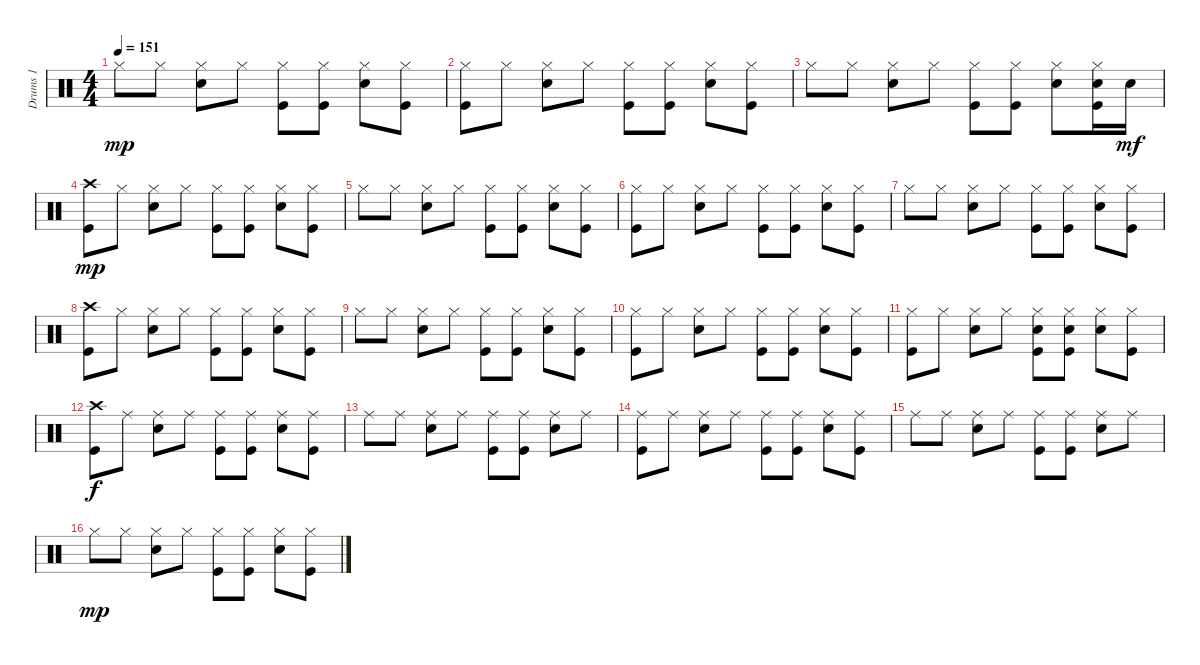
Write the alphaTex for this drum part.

\track ("Drums 1" "Drums 1") {instrument percussion}
\staff {score}
\articulation defaults
\ts (4 4)
\tempo 151
\clef neutral
\ks c "Hi-Hat (closed)".8{dy mp} "Hi-Hat (closed)".8
("Hi-Hat (closed)" "Snare (hit) 2").8 "Hi-Hat (closed)".8 ("Kick (hit)" "Hi-Hat (closed)").8 ("Kick (hit)" "Hi-Hat (closed)").8 ("Snare (hit) 2" "Hi-Hat (closed)").8 ("Hi-Hat (closed)" "Kick (hit)").8 |
("Hi-Hat (closed)" "Kick (hit)").8 "Hi-Hat (closed)".8 ("Hi-Hat (closed)" "Snare (hit) 2").8 "Hi-Hat (closed)".8 ("Hi-Hat (closed)" "Kick (hit)").8 ("Kick (hit)" "Hi-Hat (closed)").8 ("Hi-Hat (closed)" "Snare (hit) 2").8 ("Hi-Hat (closed)" "Kick (hit)").8 |
"Hi-Hat (closed)".8 "Hi-Hat (closed)".8 ("Hi-Hat (closed)" "Snare (hit) 2").8 "Hi-Hat (closed)".8 ("Kick (hit)" "Hi-Hat (closed)").8 ("Kick (hit)" "Hi-Hat (closed)").8 ("Snare (hit) 2" "Hi-Hat (closed)").8 ("Snare (hit) 2" "Hi-Hat (closed)" "Kick (hit)").16 "Snare (hit) 2".16{dy mf} |
("Crash high (hit)" "Kick (hit)").8{dy mp} "Hi-Hat (closed)".8 ("Hi-Hat (closed)" "Snare (hit) 2").8 "Hi-Hat (closed)".8 ("Hi-Hat (closed)" "Kick (hit)").8 ("Kick (hit)" "Hi-Hat (closed)").8 ("Hi-Hat (closed)" "Snare (hit) 2").8 ("Hi-Hat (closed)" "Kick (hit)").8 |
"Hi-Hat (closed)".8 "Hi-Hat (closed)".8 ("Hi-Hat (closed)" "Snare (hit) 2").8 "Hi-Hat (closed)".8 ("Kick (hit)" "Hi-Hat (closed)").8 ("Kick (hit)" "Hi-Hat (closed)").8 ("Snare (hit) 2" "Hi-Hat (closed)").8 ("Hi-Hat (closed)" "Kick (hit)").8 |
("Hi-Hat (closed)" "Kick (hit)").8 "Hi-Hat (closed)".8 ("Hi-Hat (closed)" "Snare (hit) 2").8 "Hi-Hat (closed)".8 ("Hi-Hat (closed)" "Kick (hit)").8 ("Kick (hit)" "Hi-Hat (closed)").8 ("Hi-Hat (closed)" "Snare (hit) 2").8 ("Hi-Hat (closed)" "Kick (hit)").8 |
"Hi-Hat (closed)".8 "Hi-Hat (closed)".8 ("Hi-Hat (closed)" "Snare (hit) 2").8 "Hi-Hat (closed)".8 ("Kick (hit)" "Hi-Hat (closed)").8 ("Kick (hit)" "Hi-Hat (closed)").8 ("Snare (hit) 2" "Hi-Hat (closed)").8 ("Hi-Hat (closed)" "Kick (hit)").8 |
("Crash high (hit)" "Kick (hit)").8 "Hi-Hat (closed)".8 ("Hi-Hat (closed)" "Snare (hit) 2").8 "Hi-Hat (closed)".8 ("Hi-Hat (closed)" "Kick (hit)").8 ("Kick (hit)" "Hi-Hat (closed)").8 ("Hi-Hat (closed)" "Snare (hit) 2").8 ("Hi-Hat (closed)" "Kick (hit)").8 |
"Hi-Hat (closed)".8 "Hi-Hat (closed)".8 ("Hi-Hat (closed)" "Snare (hit) 2").8 "Hi-Hat (closed)".8 ("Kick (hit)" "Hi-Hat (closed)").8 ("Kick (hit)" "Hi-Hat (closed)").8 ("Snare (hit) 2" "Hi-Hat (closed)").8 ("Hi-Hat (closed)" "Kick (hit)").8 |
("Hi-Hat (closed)" "Kick (hit)").8 "Hi-Hat (closed)".8 ("Hi-Hat (closed)" "Snare (hit) 2").8 "Hi-Hat (closed)".8 ("Hi-Hat (closed)" "Kick (hit)").8 ("Kick (hit)" "Hi-Hat (closed)").8 ("Hi-Hat (closed)" "Snare (hit) 2").8 ("Hi-Hat (closed)" "Kick (hit)").8 |
("Hi-Hat (closed)" "Kick (hit)").8 "Hi-Hat (closed)".8 ("Hi-Hat (closed)" "Snare (hit) 2").8 "Hi-Hat (closed)".8 ("Hi-Hat (closed)" "Kick (hit)" "Snare (hit) 2").8 ("Kick (hit)" "Snare (hit) 2" "Hi-Hat (closed)").8 ("Hi-Hat (closed)" "Snare (hit) 2").8 ("Hi-Hat (closed)" "Kick (hit)").8 |
("Crash high (hit)" "Kick (hit)").8{dy f} "Ride (middle)".8 ("Snare (hit) 2" "Ride (middle)").8 "Ride (middle)".8 ("Ride (middle)" "Kick (hit)").8 ("Kick (hit)" "Ride (middle)").8 ("Snare (hit) 2" "Ride (middle)").8 ("Ride (middle)" "Kick (hit)").8 |
"Ride (middle)".8 "Ride (middle)".8 ("Ride (middle)" "Snare (hit) 2").8 "Ride (middle)".8 ("Ride (middle)" "Kick (hit)").8 ("Kick (hit)" "Ride (middle)").8 ("Ride (middle)" "Snare (hit) 2").8 "Ride (middle)".8 |
("Ride (middle)" "Kick (hit)").8 "Ride (middle)".8 ("Snare (hit) 2" "Ride (middle)").8 "Ride (middle)".8 ("Ride (middle)" "Kick (hit)").8 ("Kick (hit)" "Ride (middle)").8 ("Snare (hit) 2" "Ride (middle)").8 ("Ride (middle)" "Kick (hit)").8 |
"Ride (middle)".8 "Ride (middle)".8 ("Ride (middle)" "Snare (hit) 2").8 "Ride (middle)".8 ("Ride (middle)" "Kick (hit)").8 ("Kick (hit)" "Ride (middle)").8 ("Ride (middle)" "Snare (hit) 2").8 "Ride (middle)".8 |
"Hi-Hat (closed)".8{dy mp} "Hi-Hat (closed)".8 ("Hi-Hat (closed)" "Snare (hit) 2").8 "Hi-Hat (closed)".8 ("Kick (hit)" "Hi-Hat (closed)").8 ("Kick (hit)" "Hi-Hat (closed)").8 ("Snare (hit) 2" "Hi-Hat (closed)").8 ("Hi-Hat (closed)" "Kick (hit)").8
